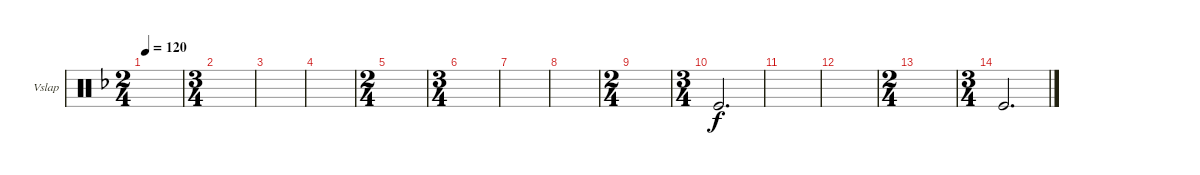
\defaultSystemsLayout 4
\bracketExtendMode groupsimilarinstruments
\firstSystemTrackNameOrientation horizontal
\otherSystemsTrackNameOrientation horizontal
\track ("Vibraslap" "Vslap") {instrument percussion}
\staff {score}
\articulation defaults
\ts (2 4)
\tempo 120
\clef neutral
\scale
0.4
\ks f
|
\ts (3 4)
\scale
0.4 |
\scale
0.25 |
\scale
0.25 |
\ts (2 4)
\scale
0.5 |
\ts (3 4)
\scale
0.5 |
\scale
0.25 |
\scale
0.25 |
\ts (2 4)
\scale
0.4 |
\ts (3 4)
\scale
0.4 "Kick (hit)".2{d} |
\scale
0.2 |
\scale
0.2 |
\ts (2 4)
\scale
0.4 |
\ts (3 4)
\scale
0.4 "Kick (hit)".2{d} |
\scale
0.25 |
\scale
0.25
